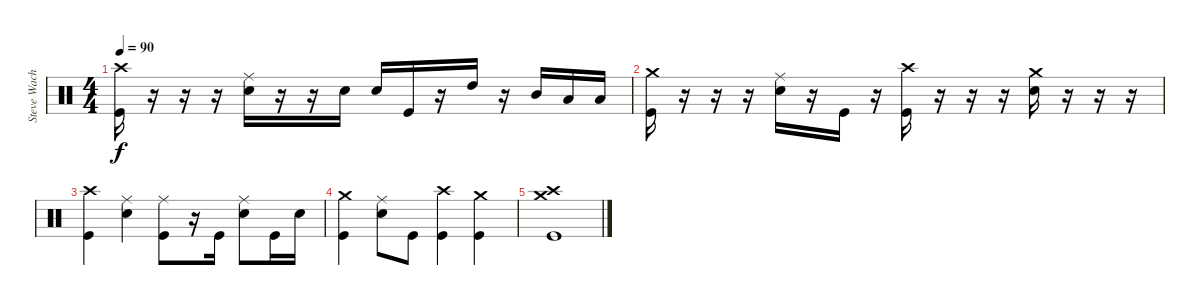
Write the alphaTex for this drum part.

\track ("Steve Wacholz" "Steve Wach") {instrument percussion}
\staff {score}
\articulation defaults
\ts (4 4)
\tempo 90
\clef neutral
\ks c
("Crash high (hit)" "Kick (hit)").16{dy f} r.16 r.16 r.16 ("Ride (middle)" "Electric Snare (hit)").16 r.16 r.16 "Electric Snare (hit)".16 "Electric Snare (hit)".16 "Kick (hit)".16 r.16 "High Tom (hit)".16 r.16 "Mid Tom (hit)".16 "Low Tom (hit)".16 "Low Tom (hit)".16 |
("Crash medium (hit)" "Kick (hit)").16 r.16 r.16 r.16 ("Ride (middle)" "Electric Snare (hit)").16 r.16 "Kick (hit)".16 r.16 ("Crash high (hit)" "Kick (hit)").16 r.16 r.16 r.16 ("Crash medium (hit)" "Electric Snare (hit)").16 r.16 r.16 r.16 |
("Crash high (hit)" "Kick (hit)").4 ("Ride (middle)" "Electric Snare (hit)").4 ("Ride (middle)" "Kick (hit)").8 r.16 "Kick (hit)".16 ("Ride (middle)" "Electric Snare (hit)").8 "Kick (hit)".16 "Electric Snare (hit)".16 |
("Crash medium (hit)" "Kick (hit)").4 ("Ride (middle)" "Electric Snare (hit)").8 "Kick (hit)".8 ("Crash high (hit)" "Kick (hit)").4 ("Crash medium (hit)" "Kick (hit)").4 |
("Crash high (hit)" "Crash medium (hit)" "Kick (hit)").1
